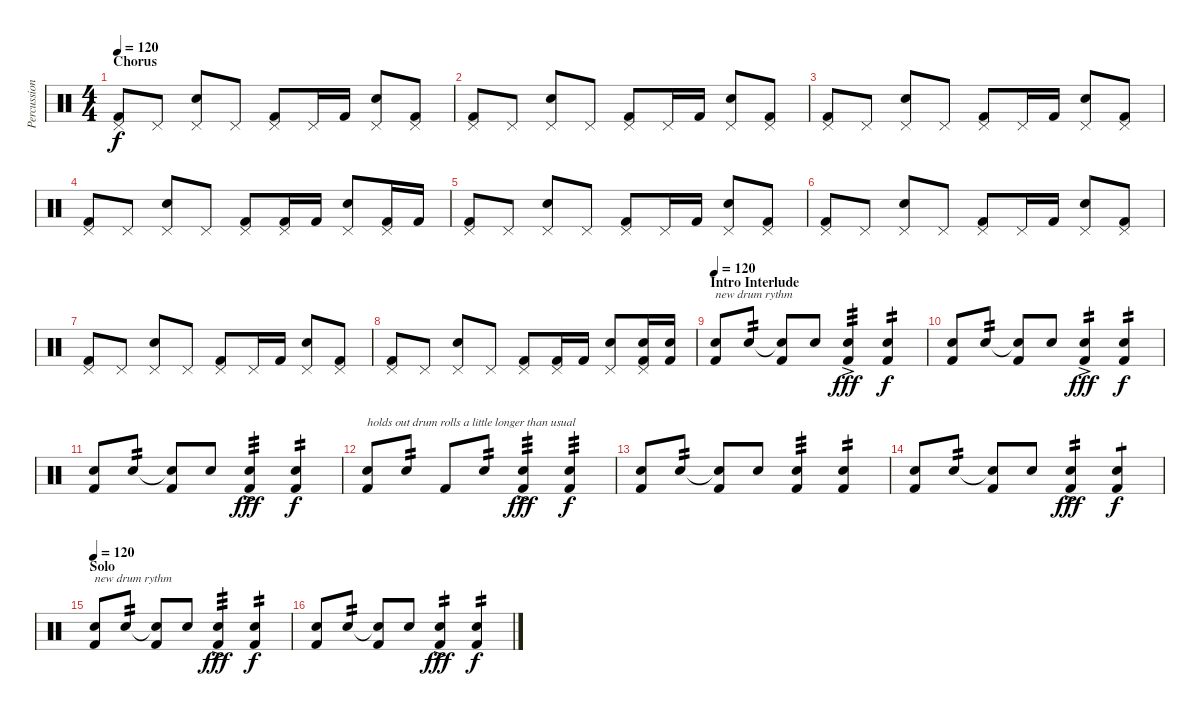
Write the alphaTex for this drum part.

\track ("Percussion" "Percussion") {instrument percussion}
\staff {score}
\articulation defaults
\ts (4 4)
\section ("" "Chorus")
\tempo 120
\clef neutral
\ks c
("Kick (hit) 2" "Pedal Hi-Hat (hit)").8{dy f} "Pedal Hi-Hat (hit)".8 ("Electric Snare (hit)" "Pedal Hi-Hat (hit)").8 "Pedal Hi-Hat (hit)".8 ("Kick (hit) 2" "Pedal Hi-Hat (hit)").8 "Pedal Hi-Hat (hit)".16 "Kick (hit) 2".16 ("Electric Snare (hit)" "Pedal Hi-Hat (hit)").8 ("Kick (hit) 2" "Pedal Hi-Hat (hit)").8 |
("Kick (hit) 2" "Pedal Hi-Hat (hit)").8 "Pedal Hi-Hat (hit)".8 ("Electric Snare (hit)" "Pedal Hi-Hat (hit)").8 "Pedal Hi-Hat (hit)".8 ("Kick (hit) 2" "Pedal Hi-Hat (hit)").8 "Pedal Hi-Hat (hit)".16 "Kick (hit) 2".16 ("Electric Snare (hit)" "Pedal Hi-Hat (hit)").8 ("Kick (hit) 2" "Pedal Hi-Hat (hit)").8 |
("Kick (hit) 2" "Pedal Hi-Hat (hit)").8 "Pedal Hi-Hat (hit)".8 ("Electric Snare (hit)" "Pedal Hi-Hat (hit)").8 "Pedal Hi-Hat (hit)".8 ("Kick (hit) 2" "Pedal Hi-Hat (hit)").8 "Pedal Hi-Hat (hit)".16 "Kick (hit) 2".16 ("Electric Snare (hit)" "Pedal Hi-Hat (hit)").8 ("Kick (hit) 2" "Pedal Hi-Hat (hit)").8 |
("Kick (hit) 2" "Pedal Hi-Hat (hit)").8 "Pedal Hi-Hat (hit)".8 ("Electric Snare (hit)" "Pedal Hi-Hat (hit)").8 "Pedal Hi-Hat (hit)".8 ("Kick (hit) 2" "Pedal Hi-Hat (hit)").8 ("Kick (hit) 2" "Pedal Hi-Hat (hit)").16 "Kick (hit) 2".16 ("Electric Snare (hit)" "Pedal Hi-Hat (hit)").8 ("Kick (hit) 2" "Pedal Hi-Hat (hit)").16 "Kick (hit) 2".16 |
("Kick (hit) 2" "Pedal Hi-Hat (hit)").8 "Pedal Hi-Hat (hit)".8 ("Electric Snare (hit)" "Pedal Hi-Hat (hit)").8 "Pedal Hi-Hat (hit)".8 ("Kick (hit) 2" "Pedal Hi-Hat (hit)").8 "Pedal Hi-Hat (hit)".16 "Kick (hit) 2".16 ("Electric Snare (hit)" "Pedal Hi-Hat (hit)").8 ("Kick (hit) 2" "Pedal Hi-Hat (hit)").8 |
("Kick (hit) 2" "Pedal Hi-Hat (hit)").8 "Pedal Hi-Hat (hit)".8 ("Electric Snare (hit)" "Pedal Hi-Hat (hit)").8 "Pedal Hi-Hat (hit)".8 ("Kick (hit) 2" "Pedal Hi-Hat (hit)").8 "Pedal Hi-Hat (hit)".16 "Kick (hit) 2".16 ("Electric Snare (hit)" "Pedal Hi-Hat (hit)").8 ("Kick (hit) 2" "Pedal Hi-Hat (hit)").8 |
("Kick (hit) 2" "Pedal Hi-Hat (hit)").8 "Pedal Hi-Hat (hit)".8 ("Electric Snare (hit)" "Pedal Hi-Hat (hit)").8 "Pedal Hi-Hat (hit)".8 ("Kick (hit) 2" "Pedal Hi-Hat (hit)").8 "Pedal Hi-Hat (hit)".16 "Kick (hit) 2".16 ("Electric Snare (hit)" "Pedal Hi-Hat (hit)").8 ("Kick (hit) 2" "Pedal Hi-Hat (hit)").8 |
("Kick (hit) 2" "Pedal Hi-Hat (hit)").8 "Pedal Hi-Hat (hit)".8 ("Electric Snare (hit)" "Pedal Hi-Hat (hit)").8 "Pedal Hi-Hat (hit)".8 ("Kick (hit) 2" "Pedal Hi-Hat (hit)").8 ("Kick (hit) 2" "Pedal Hi-Hat (hit)").16 "Kick (hit) 2".16 ("Electric Snare (hit)" "Pedal Hi-Hat (hit)").8 ("Electric Snare (hit)" "Kick (hit) 2" "Pedal Hi-Hat (hit)").16 ("Electric Snare (hit)" "Kick (hit) 2").16 |
\section ("" "Intro Interlude")
\tempo 120
("Electric Snare (hit)" "Kick (hit) 2").8{txt "new drum rythm"} "Electric Snare (hit)".8{tp 2} ("Snare (hit)"{t} "Kick (hit) 2").8 "Electric Snare (hit)".8{volume 6} ("Electric Snare (hit)" "Kick (hit) 2"{ac}).4{tp 3 dy fff volume 11} ("Electric Snare (hit)" "Kick (hit) 2").4{tp 2 dy f} |
("Electric Snare (hit)" "Kick (hit) 2").8 "Electric Snare (hit)".8{tp 2} ("Snare (hit)"{t} "Kick (hit) 2").8 "Electric Snare (hit)".8{volume 6} ("Electric Snare (hit)" "Kick (hit) 2"{ac}).4{tp 2 dy fff volume 11} ("Electric Snare (hit)" "Kick (hit) 2").4{tp 2 dy f} |
("Electric Snare (hit)" "Kick (hit) 2").8 "Electric Snare (hit)".8{tp 2} ("Snare (hit)"{t} "Kick (hit) 2").8 "Electric Snare (hit)".8{volume 6} ("Electric Snare (hit)" "Kick (hit) 2"{ac}).4{tp 3 dy fff volume 11} ("Electric Snare (hit)" "Kick (hit) 2").4{tp 2 dy f} |
("Electric Snare (hit)" "Kick (hit) 2").8{txt "holds out drum rolls a little longer than usual"} "Electric Snare (hit)".8{tp 2} "Kick (hit) 2".8 "Electric Snare (hit)".8{tp 2 volume 6} ("Electric Snare (hit)" "Kick (hit) 2"{ac}).4{tp 3 dy fff volume 11} ("Electric Snare (hit)" "Kick (hit) 2").4{tp 3 dy f} |
("Electric Snare (hit)" "Kick (hit) 2").8 "Electric Snare (hit)".8{tp 2} ("Snare (hit)"{t} "Kick (hit) 2").8 "Electric Snare (hit)".8{volume 6} ("Electric Snare (hit)" "Kick (hit) 2").4{tp 3 volume 11} ("Electric Snare (hit)" "Kick (hit) 2").4{tp 2} |
("Electric Snare (hit)" "Kick (hit) 2").8 "Electric Snare (hit)".8{tp 2} ("Snare (hit)"{t} "Kick (hit) 2").8 "Electric Snare (hit)".8{volume 6} ("Electric Snare (hit)" "Kick (hit) 2"{ac}).4{tp 2 dy fff volume 11} ("Electric Snare (hit)" "Kick (hit) 2").4{tp 1 dy f} |
\section ("" "Solo")
\tempo 120
("Electric Snare (hit)" "Kick (hit) 2").8{txt "new drum rythm"} "Electric Snare (hit)".8{tp 2} ("Snare (hit)"{t} "Kick (hit) 2").8 "Electric Snare (hit)".8{volume 6} ("Electric Snare (hit)" "Kick (hit) 2"{ac}).4{tp 3 dy fff volume 11} ("Electric Snare (hit)" "Kick (hit) 2").4{tp 2 dy f} |
("Electric Snare (hit)" "Kick (hit) 2").8 "Electric Snare (hit)".8{tp 2} ("Snare (hit)"{t} "Kick (hit) 2").8 "Electric Snare (hit)".8{volume 6} ("Electric Snare (hit)" "Kick (hit) 2"{ac}).4{tp 2 dy fff volume 11} ("Electric Snare (hit)" "Kick (hit) 2").4{tp 2 dy f}
